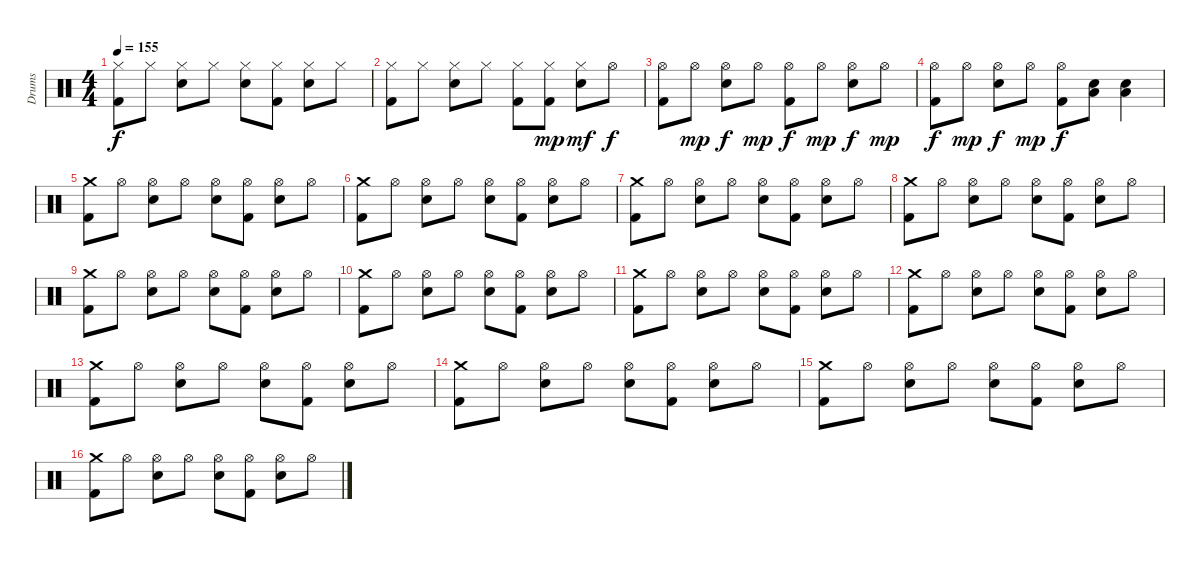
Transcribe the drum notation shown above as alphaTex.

\track ("Drums" "Drums") {instrument percussion}
\staff {score}
\articulation defaults
\ts (4 4)
\tempo 155
\clef neutral
\ks c
("Hi-Hat (closed)" "Kick (hit) 2").8{dy f} "Hi-Hat (closed)".8 ("Hi-Hat (closed)" "Snare (hit) 2").8 "Hi-Hat (closed)".8 ("Hi-Hat (closed)" "Snare (hit) 2").8 ("Hi-Hat (closed)" "Kick (hit) 2").8 ("Hi-Hat (closed)" "Snare (hit) 2").8 "Hi-Hat (closed)".8 |
("Hi-Hat (closed)" "Kick (hit) 2").8 "Hi-Hat (closed)".8 ("Hi-Hat (closed)" "Snare (hit) 2").8 "Hi-Hat (closed)".8 ("Hi-Hat (closed)" "Kick (hit) 2").8 ("Hi-Hat (closed)" "Kick (hit) 2").8{dy mp} ("Hi-Hat (closed)" "Snare (hit) 2").8{dy mf} "Hi-Hat (open)".8{dy f} |
("Hi-Hat (open)" "Kick (hit) 2").8 "Hi-Hat (open)".8{dy mp} ("Hi-Hat (open)" "Snare (hit) 2").8{dy f} "Hi-Hat (open)".8{dy mp} ("Hi-Hat (open)" "Kick (hit) 2").8{dy f} "Hi-Hat (open)".8{dy mp} ("Hi-Hat (open)" "Snare (hit) 2").8{dy f} "Hi-Hat (open)".8{dy mp} |
("Hi-Hat (open)" "Kick (hit) 2").8{dy f} "Hi-Hat (open)".8{dy mp} ("Hi-Hat (open)" "Snare (hit) 2").8{dy f} "Hi-Hat (open)".8{dy mp} ("Hi-Hat (open)" "Kick (hit) 2").8{dy f} ("Low Tom (hit)" "Snare (hit) 2").8 ("Low Tom (hit)" "Snare (hit) 2").4 |
("Crash medium (hit)" "Kick (hit) 2").8 "Hi-Hat (open)".8 ("Hi-Hat (open)" "Snare (hit) 2").8 "Hi-Hat (open)".8 ("Hi-Hat (open)" "Snare (hit) 2").8 ("Hi-Hat (open)" "Kick (hit) 2").8 ("Hi-Hat (open)" "Snare (hit) 2").8 "Hi-Hat (open)".8 |
("Crash medium (hit)" "Kick (hit) 2").8 "Hi-Hat (open)".8 ("Hi-Hat (open)" "Snare (hit) 2").8 "Hi-Hat (open)".8 ("Hi-Hat (open)" "Snare (hit) 2").8 ("Hi-Hat (open)" "Kick (hit) 2").8 ("Hi-Hat (open)" "Snare (hit) 2").8 "Hi-Hat (open)".8 |
("Crash medium (hit)" "Kick (hit) 2").8 "Hi-Hat (open)".8 ("Hi-Hat (open)" "Snare (hit) 2").8 "Hi-Hat (open)".8 ("Hi-Hat (open)" "Snare (hit) 2").8 ("Hi-Hat (open)" "Kick (hit) 2").8 ("Hi-Hat (open)" "Snare (hit) 2").8 "Hi-Hat (open)".8 |
("Crash medium (hit)" "Kick (hit) 2").8 "Hi-Hat (open)".8 ("Hi-Hat (open)" "Snare (hit) 2").8 "Hi-Hat (open)".8 ("Hi-Hat (open)" "Snare (hit) 2").8 ("Hi-Hat (open)" "Kick (hit) 2").8 ("Hi-Hat (open)" "Snare (hit) 2").8 "Hi-Hat (open)".8 |
("Crash medium (hit)" "Kick (hit) 2").8 "Hi-Hat (open)".8 ("Hi-Hat (open)" "Snare (hit) 2").8 "Hi-Hat (open)".8 ("Hi-Hat (open)" "Snare (hit) 2").8 ("Hi-Hat (open)" "Kick (hit) 2").8 ("Hi-Hat (open)" "Snare (hit) 2").8 "Hi-Hat (open)".8 |
("Crash medium (hit)" "Kick (hit) 2").8 "Hi-Hat (open)".8 ("Hi-Hat (open)" "Snare (hit) 2").8 "Hi-Hat (open)".8 ("Hi-Hat (open)" "Snare (hit) 2").8 ("Hi-Hat (open)" "Kick (hit) 2").8 ("Hi-Hat (open)" "Snare (hit) 2").8 "Hi-Hat (open)".8 |
("Crash medium (hit)" "Kick (hit) 2").8 "Hi-Hat (open)".8 ("Hi-Hat (open)" "Snare (hit) 2").8 "Hi-Hat (open)".8 ("Hi-Hat (open)" "Snare (hit) 2").8 ("Hi-Hat (open)" "Kick (hit) 2").8 ("Hi-Hat (open)" "Snare (hit) 2").8 "Hi-Hat (open)".8 |
("Crash medium (hit)" "Kick (hit) 2").8 "Hi-Hat (open)".8 ("Hi-Hat (open)" "Snare (hit) 2").8 "Hi-Hat (open)".8 ("Hi-Hat (open)" "Snare (hit) 2").8 ("Hi-Hat (open)" "Kick (hit) 2").8 ("Hi-Hat (open)" "Snare (hit) 2").8 "Hi-Hat (open)".8 |
("Crash medium (hit)" "Kick (hit) 2").8 "Hi-Hat (open)".8 ("Hi-Hat (open)" "Snare (hit) 2").8 "Hi-Hat (open)".8 ("Hi-Hat (open)" "Snare (hit) 2").8 ("Hi-Hat (open)" "Kick (hit) 2").8 ("Hi-Hat (open)" "Snare (hit) 2").8 "Hi-Hat (open)".8 |
("Crash medium (hit)" "Kick (hit) 2").8 "Hi-Hat (open)".8 ("Hi-Hat (open)" "Snare (hit) 2").8 "Hi-Hat (open)".8 ("Hi-Hat (open)" "Snare (hit) 2").8 ("Hi-Hat (open)" "Kick (hit) 2").8 ("Hi-Hat (open)" "Snare (hit) 2").8 "Hi-Hat (open)".8 |
("Crash medium (hit)" "Kick (hit) 2").8 "Hi-Hat (open)".8 ("Hi-Hat (open)" "Snare (hit) 2").8 "Hi-Hat (open)".8 ("Hi-Hat (open)" "Snare (hit) 2").8 ("Hi-Hat (open)" "Kick (hit) 2").8 ("Hi-Hat (open)" "Snare (hit) 2").8 "Hi-Hat (open)".8 |
("Crash medium (hit)" "Kick (hit) 2").8 "Hi-Hat (open)".8 ("Hi-Hat (open)" "Snare (hit) 2").8 "Hi-Hat (open)".8 ("Hi-Hat (open)" "Snare (hit) 2").8 ("Hi-Hat (open)" "Kick (hit) 2").8 ("Hi-Hat (open)" "Snare (hit) 2").8 "Hi-Hat (open)".8
